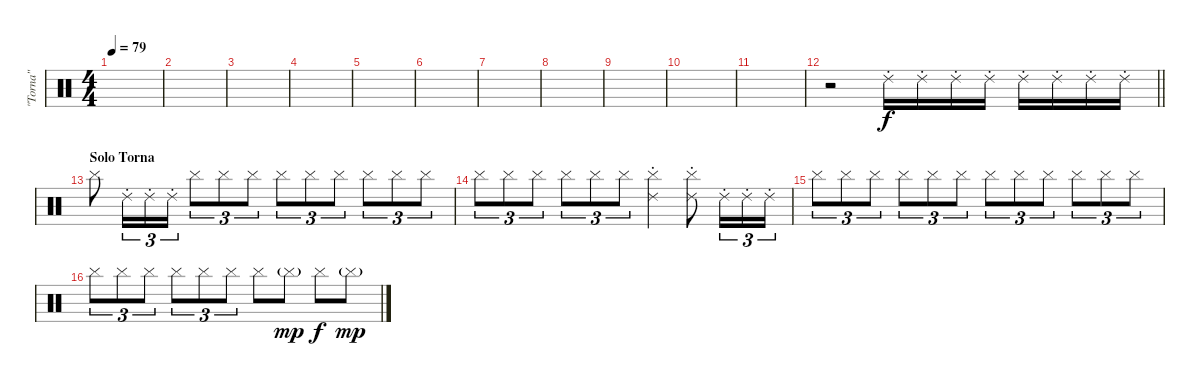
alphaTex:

\track ("\"Torna\"" "\"Torna\"") {instrument percussion}
\staff {score}
\articulation defaults
\ts (4 4)
\tempo 79
\clef neutral
\ks c
|
|
|
|
|
|
|
|
|
|
|
\barLineRight lightlight
r.2 "Ride (choke) 2".16 "Ride (choke) 2".16 "Ride (choke) 2".16 "Ride (choke) 2".16 "Ride (choke) 2".16 "Ride (choke) 2".16 "Ride (choke) 2".16 "Ride (choke) 2".16 |
\section ("" "Solo Torna")
"Cymbal (hit)".8 "Ride (choke) 2".16{tu (3 2)} "Ride (choke) 2".16{tu (3 2)} "Ride (choke) 2".16{tu (3 2)} "Cymbal (hit)".8{tu (3 2)} "Cymbal (hit)".8{tu (3 2)} "Cymbal (hit)".8{tu (3 2)} "Cymbal (hit)".8{tu (3 2)} "Cymbal (hit)".8{tu (3 2)} "Cymbal (hit)".8{tu (3 2)} "Cymbal (hit)".8{tu (3 2)} "Cymbal (hit)".8{tu (3 2)} "Cymbal (hit)".8{tu (3 2)} |
"Cymbal (hit)".8{tu (3 2)} "Cymbal (hit)".8{tu (3 2)} "Cymbal (hit)".8{tu (3 2)} "Cymbal (hit)".8{tu (3 2)} "Cymbal (hit)".8{tu (3 2)} "Cymbal (hit)".8{tu (3 2)} ("Ride (choke) 2" "Cymbal (hit)").4 ("Ride (choke) 2" "Cymbal (hit)").8 "Ride (choke) 2".16{tu (3 2)} "Ride (choke) 2".16{tu (3 2)} "Ride (choke) 2".16{tu (3 2)} |
"Cymbal (hit)".8{tu (3 2)} "Cymbal (hit)".8{tu (3 2)} "Cymbal (hit)".8{tu (3 2)} "Cymbal (hit)".8{tu (3 2)} "Cymbal (hit)".8{tu (3 2)} "Cymbal (hit)".8{tu (3 2)} "Cymbal (hit)".8{tu (3 2)} "Cymbal (hit)".8{tu (3 2)} "Cymbal (hit)".8{tu (3 2)} "Cymbal (hit)".8{tu (3 2)} "Cymbal (hit)".8{tu (3 2)} "Cymbal (hit)".8{tu (3 2)} |
"Cymbal (hit)".8{tu (3 2)} "Cymbal (hit)".8{tu (3 2)} "Cymbal (hit)".8{tu (3 2)} "Cymbal (hit)".8{tu (3 2)} "Cymbal (hit)".8{tu (3 2)} "Cymbal (hit)".8{tu (3 2)} "Cymbal (hit)".8 "Cymbal (hit)"{g}.8{dy mp} "Cymbal (hit)".8{dy f} "Cymbal (hit)"{g}.8{dy mp}
